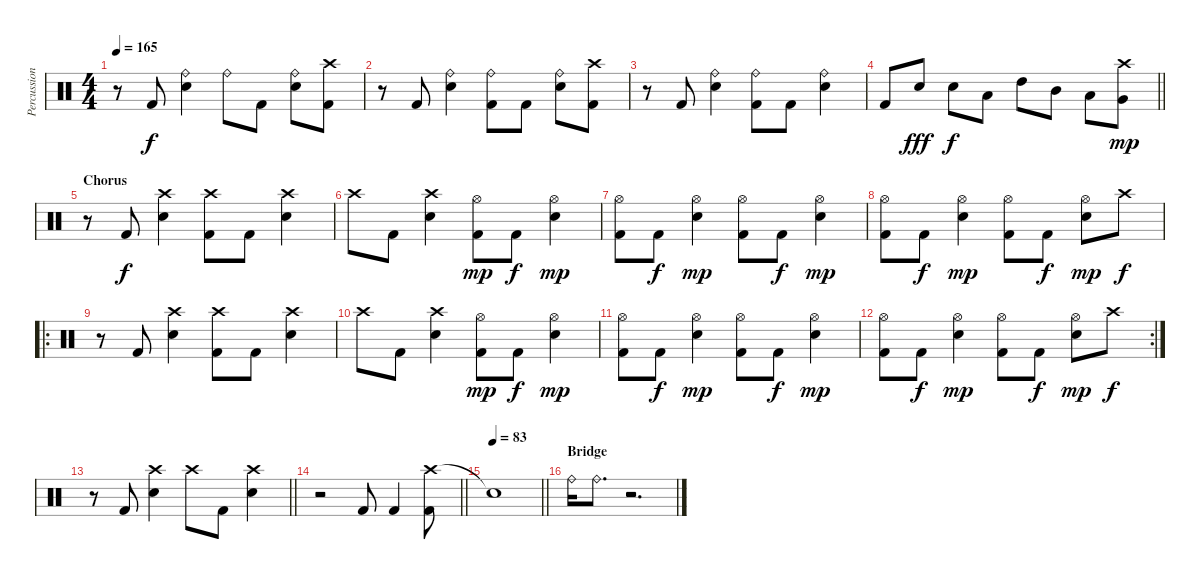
\track ("Percussion" "Percussion") {instrument percussion}
\staff {score}
\articulation defaults
\ts (4 4)
\tempo 165
\clef neutral
\ks c
r.8{dy f} "Kick (hit) 2".8 ("Ride (bell)" "Electric Snare (hit)").4 "Ride (bell)".8 "Kick (hit) 2".8 ("Ride (bell)" "Electric Snare (hit)").8 ("Crash high (hit)" "Kick (hit) 2").8 |
r.8 "Kick (hit) 2".8 ("Ride (bell)" "Electric Snare (hit)").4 ("Ride (bell)" "Kick (hit) 2").8 "Kick (hit) 2".8 ("Ride (bell)" "Electric Snare (hit)").8 ("Crash high (hit)" "Kick (hit) 2").8 |
r.8 "Kick (hit) 2".8 ("Ride (bell)" "Electric Snare (hit)").4 ("Ride (bell)" "Kick (hit) 2").8 "Kick (hit) 2".8 ("Ride (bell)" "Electric Snare (hit)").4 |
\barLineRight lightlight "Kick (hit) 2".8 "Electric Snare (hit)".8{dy fff} "Electric Snare (hit)".8{dy f} "Low Tom (hit)".8 "High Tom (hit)".8 "Mid Tom (hit)".8 "Low Tom (hit)".8
("Crash high (hit)" "Very Low Tom (hit)").8{dy mp} |
\section ("" "Chorus")
r.8 "Kick (hit) 2".8{dy f} ("Crash high (hit)" "Electric Snare (hit)").4 ("Crash high (hit)" "Kick (hit) 2").8 "Kick (hit) 2".8 ("Crash high (hit)" "Electric Snare (hit)").4 |
"Crash high (hit)".8 "Kick (hit) 2".8 ("Crash high (hit)" "Electric Snare (hit)").4 ("Hi-Hat (open)" "Kick (hit) 2").8{dy mp} "Kick (hit) 2".8{dy f} ("Hi-Hat (open)" "Electric Snare (hit)").4{dy mp} |
("Hi-Hat (open)" "Kick (hit) 2").8 "Kick (hit) 2".8{dy f} ("Hi-Hat (open)" "Electric Snare (hit)").4{dy mp} ("Hi-Hat (open)" "Kick (hit) 2").8 "Kick (hit) 2".8{dy f} ("Hi-Hat (open)" "Electric Snare (hit)").4{dy mp} |
("Hi-Hat (open)" "Kick (hit) 2").8 "Kick (hit) 2".8{dy f} ("Hi-Hat (open)" "Electric Snare (hit)").4{dy mp} ("Hi-Hat (open)" "Kick (hit) 2").8 "Kick (hit) 2".8{dy f} ("Hi-Hat (open)" "Electric Snare (hit)").8{dy mp} "Crash high (hit)".8{dy f} |
\ro
r.8 "Kick (hit) 2".8 ("Crash high (hit)" "Electric Snare (hit)").4 ("Crash high (hit)" "Kick (hit) 2").8 "Kick (hit) 2".8 ("Crash high (hit)" "Electric Snare (hit)").4 |
"Crash high (hit)".8 "Kick (hit) 2".8 ("Crash high (hit)" "Electric Snare (hit)").4 ("Hi-Hat (open)" "Kick (hit) 2").8{dy mp} "Kick (hit) 2".8{dy f} ("Hi-Hat (open)" "Electric Snare (hit)").4{dy mp} |
("Hi-Hat (open)" "Kick (hit) 2").8 "Kick (hit) 2".8{dy f} ("Hi-Hat (open)" "Electric Snare (hit)").4{dy mp} ("Hi-Hat (open)" "Kick (hit) 2").8 "Kick (hit) 2".8{dy f} ("Hi-Hat (open)" "Electric Snare (hit)").4{dy mp} |
\rc 2
("Hi-Hat (open)" "Kick (hit) 2").8 "Kick (hit) 2".8{dy f} ("Hi-Hat (open)" "Electric Snare (hit)").4{dy mp} ("Hi-Hat (open)" "Kick (hit) 2").8 "Kick (hit) 2".8{dy f} ("Hi-Hat (open)" "Electric Snare (hit)").8{dy mp} "Crash high (hit)".8{dy f} |
\barLineRight lightlight
r.8 "Kick (hit) 2".8 ("Crash high (hit)" "Electric Snare (hit)").4 "Crash high (hit)".8 "Kick (hit) 2".8 ("Crash high (hit)" "Electric Snare (hit)").4 |
\barLineRight lightlight
r.2 "Kick (hit) 2".8 "Kick (hit) 2".4 ("Crash high (hit)" "Kick (hit) 2").8 |
\tempo 80
\tempo 83
\barLineRight lightlight "Snare (hit)"{t}.1
|
\section ("" "Bridge")
"Ride (bell)".16 "Ride (bell)".8{d} r.2{d}
